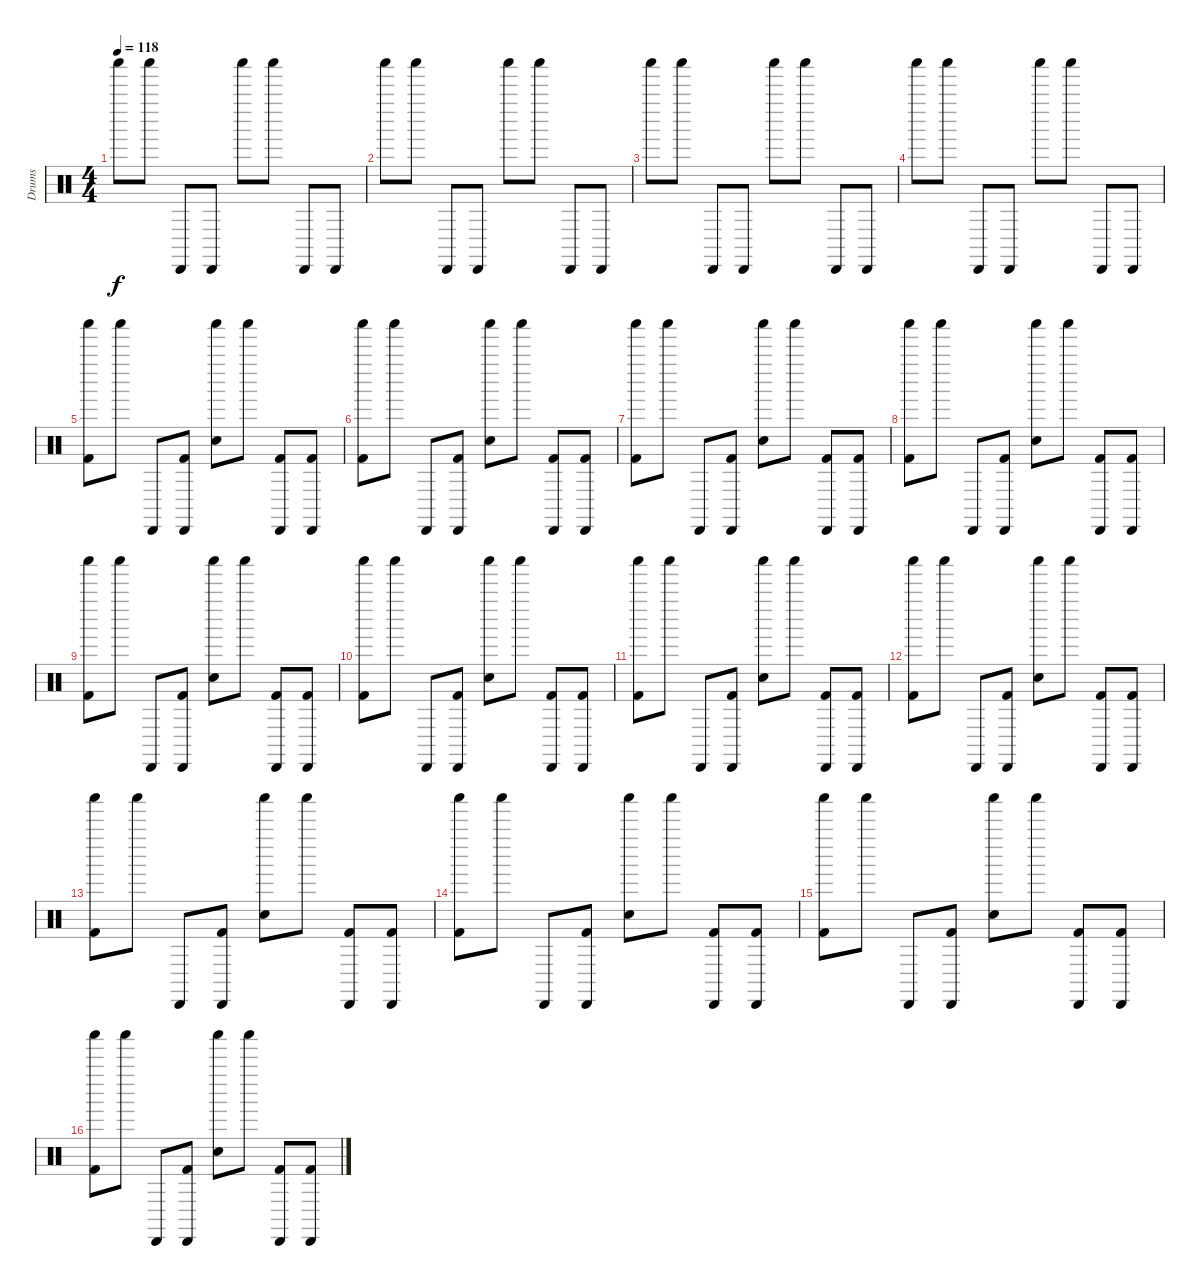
\track ("Drums" "Drums") {instrument percussion}
\staff {score}
\articulation defaults
\ts (4 4)
\tempo 118
\clef neutral
\ks c "Shaker (hit)".8{dy f} "Shaker (hit)".8 "Cabasa (hit)".8 "Cabasa (hit)".8 "Shaker (hit)".8 "Shaker (hit)".8 "Cabasa (hit)".8 "Cabasa (hit)".8
|
"Shaker (hit)".8 "Shaker (hit)".8 "Cabasa (hit)".8 "Cabasa (hit)".8 "Shaker (hit)".8 "Shaker (hit)".8 "Cabasa (hit)".8 "Cabasa (hit)".8 |
"Shaker (hit)".8 "Shaker (hit)".8 "Cabasa (hit)".8 "Cabasa (hit)".8 "Shaker (hit)".8 "Shaker (hit)".8 "Cabasa (hit)".8 "Cabasa (hit)".8 |
"Shaker (hit)".8 "Shaker (hit)".8 "Cabasa (hit)".8 "Cabasa (hit)".8 "Shaker (hit)".8 "Shaker (hit)".8 "Cabasa (hit)".8 "Cabasa (hit)".8 |
("Shaker (hit)" "Kick (hit) 2").8 "Shaker (hit)".8 "Cabasa (hit)".8 ("Cabasa (hit)" "Kick (hit) 2").8 ("Shaker (hit)" "Electric Snare (hit)").8 "Shaker (hit)".8 ("Cabasa (hit)" "Kick (hit) 2").8 ("Cabasa (hit)" "Kick (hit) 2").8 |
("Shaker (hit)" "Kick (hit) 2").8 "Shaker (hit)".8 "Cabasa (hit)".8 ("Cabasa (hit)" "Kick (hit) 2").8 ("Shaker (hit)" "Electric Snare (hit)").8 "Shaker (hit)".8 ("Cabasa (hit)" "Kick (hit) 2").8 ("Cabasa (hit)" "Kick (hit) 2").8 |
("Shaker (hit)" "Kick (hit) 2").8 "Shaker (hit)".8 "Cabasa (hit)".8 ("Cabasa (hit)" "Kick (hit) 2").8 ("Shaker (hit)" "Electric Snare (hit)").8 "Shaker (hit)".8 ("Cabasa (hit)" "Kick (hit) 2").8 ("Cabasa (hit)" "Kick (hit) 2").8 |
("Shaker (hit)" "Kick (hit) 2").8 "Shaker (hit)".8 "Cabasa (hit)".8 ("Cabasa (hit)" "Kick (hit) 2").8 ("Shaker (hit)" "Electric Snare (hit)").8 "Shaker (hit)".8 ("Cabasa (hit)" "Kick (hit) 2").8 ("Cabasa (hit)" "Kick (hit) 2").8 |
("Shaker (hit)" "Kick (hit) 2").8 "Shaker (hit)".8 "Cabasa (hit)".8 ("Cabasa (hit)" "Kick (hit) 2").8 ("Shaker (hit)" "Electric Snare (hit)").8 "Shaker (hit)".8 ("Cabasa (hit)" "Kick (hit) 2").8 ("Cabasa (hit)" "Kick (hit) 2").8 |
("Shaker (hit)" "Kick (hit) 2").8 "Shaker (hit)".8 "Cabasa (hit)".8 ("Cabasa (hit)" "Kick (hit) 2").8 ("Shaker (hit)" "Electric Snare (hit)").8 "Shaker (hit)".8 ("Cabasa (hit)" "Kick (hit) 2").8 ("Cabasa (hit)" "Kick (hit) 2").8 |
("Shaker (hit)" "Kick (hit) 2").8 "Shaker (hit)".8 "Cabasa (hit)".8 ("Cabasa (hit)" "Kick (hit) 2").8 ("Shaker (hit)" "Electric Snare (hit)").8 "Shaker (hit)".8 ("Cabasa (hit)" "Kick (hit) 2").8 ("Cabasa (hit)" "Kick (hit) 2").8 |
("Shaker (hit)" "Kick (hit) 2").8 "Shaker (hit)".8 "Cabasa (hit)".8 ("Cabasa (hit)" "Kick (hit) 2").8 ("Shaker (hit)" "Electric Snare (hit)").8 "Shaker (hit)".8 ("Cabasa (hit)" "Kick (hit) 2").8 ("Cabasa (hit)" "Kick (hit) 2").8 |
("Shaker (hit)" "Kick (hit) 2").8 "Shaker (hit)".8 "Cabasa (hit)".8 ("Cabasa (hit)" "Kick (hit) 2").8 ("Shaker (hit)" "Electric Snare (hit)").8 "Shaker (hit)".8 ("Cabasa (hit)" "Kick (hit) 2").8 ("Cabasa (hit)" "Kick (hit) 2").8 |
("Shaker (hit)" "Kick (hit) 2").8 "Shaker (hit)".8 "Cabasa (hit)".8 ("Cabasa (hit)" "Kick (hit) 2").8 ("Shaker (hit)" "Electric Snare (hit)").8 "Shaker (hit)".8 ("Cabasa (hit)" "Kick (hit) 2").8 ("Cabasa (hit)" "Kick (hit) 2").8 |
("Shaker (hit)" "Kick (hit) 2").8 "Shaker (hit)".8 "Cabasa (hit)".8 ("Cabasa (hit)" "Kick (hit) 2").8 ("Shaker (hit)" "Electric Snare (hit)").8 "Shaker (hit)".8 ("Cabasa (hit)" "Kick (hit) 2").8 ("Cabasa (hit)" "Kick (hit) 2").8 |
("Shaker (hit)" "Kick (hit) 2").8 "Shaker (hit)".8 "Cabasa (hit)".8 ("Cabasa (hit)" "Kick (hit) 2").8 ("Shaker (hit)" "Electric Snare (hit)").8 "Shaker (hit)".8 ("Cabasa (hit)" "Kick (hit) 2").8 ("Cabasa (hit)" "Kick (hit) 2").8
